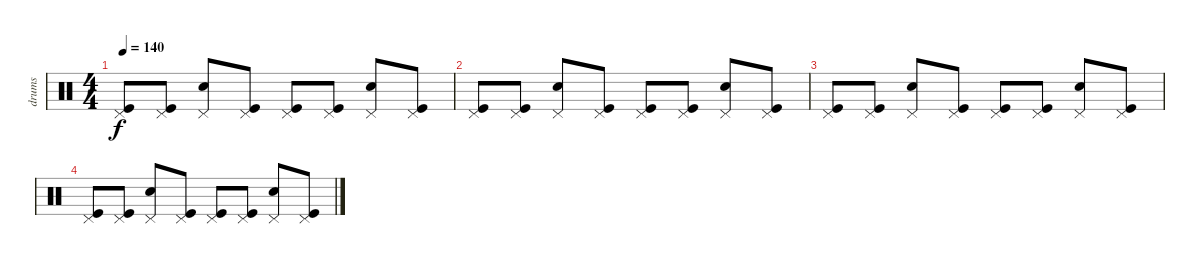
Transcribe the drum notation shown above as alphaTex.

\track ("drums" "drums") {instrument percussion}
\staff {score}
\articulation defaults
\ts (4 4)
\tempo 140
\clef neutral
\ks c
("Pedal Hi-Hat (hit)" "Kick (hit)").8{dy f} ("Pedal Hi-Hat (hit)" "Kick (hit)").8 ("Pedal Hi-Hat (hit)" "Snare (hit) 2").8 ("Pedal Hi-Hat (hit)" "Kick (hit)").8 ("Pedal Hi-Hat (hit)" "Kick (hit)").8 ("Pedal Hi-Hat (hit)" "Kick (hit)").8 ("Pedal Hi-Hat (hit)" "Snare (hit) 2").8 ("Pedal Hi-Hat (hit)" "Kick (hit)").8 |
("Pedal Hi-Hat (hit)" "Kick (hit)").8 ("Pedal Hi-Hat (hit)" "Kick (hit)").8 ("Pedal Hi-Hat (hit)" "Snare (hit) 2").8 ("Pedal Hi-Hat (hit)" "Kick (hit)").8 ("Pedal Hi-Hat (hit)" "Kick (hit)").8 ("Pedal Hi-Hat (hit)" "Kick (hit)").8 ("Pedal Hi-Hat (hit)" "Snare (hit) 2").8 ("Pedal Hi-Hat (hit)" "Kick (hit)").8 |
("Pedal Hi-Hat (hit)" "Kick (hit)").8 ("Pedal Hi-Hat (hit)" "Kick (hit)").8 ("Pedal Hi-Hat (hit)" "Snare (hit) 2").8 ("Pedal Hi-Hat (hit)" "Kick (hit)").8 ("Pedal Hi-Hat (hit)" "Kick (hit)").8 ("Pedal Hi-Hat (hit)" "Kick (hit)").8 ("Pedal Hi-Hat (hit)" "Snare (hit) 2").8 ("Pedal Hi-Hat (hit)" "Kick (hit)").8 |
("Pedal Hi-Hat (hit)" "Kick (hit)").8 ("Pedal Hi-Hat (hit)" "Kick (hit)").8 ("Pedal Hi-Hat (hit)" "Snare (hit) 2").8 ("Pedal Hi-Hat (hit)" "Kick (hit)").8 ("Pedal Hi-Hat (hit)" "Kick (hit)").8 ("Pedal Hi-Hat (hit)" "Kick (hit)").8 ("Pedal Hi-Hat (hit)" "Snare (hit) 2").8 ("Pedal Hi-Hat (hit)" "Kick (hit)").8
